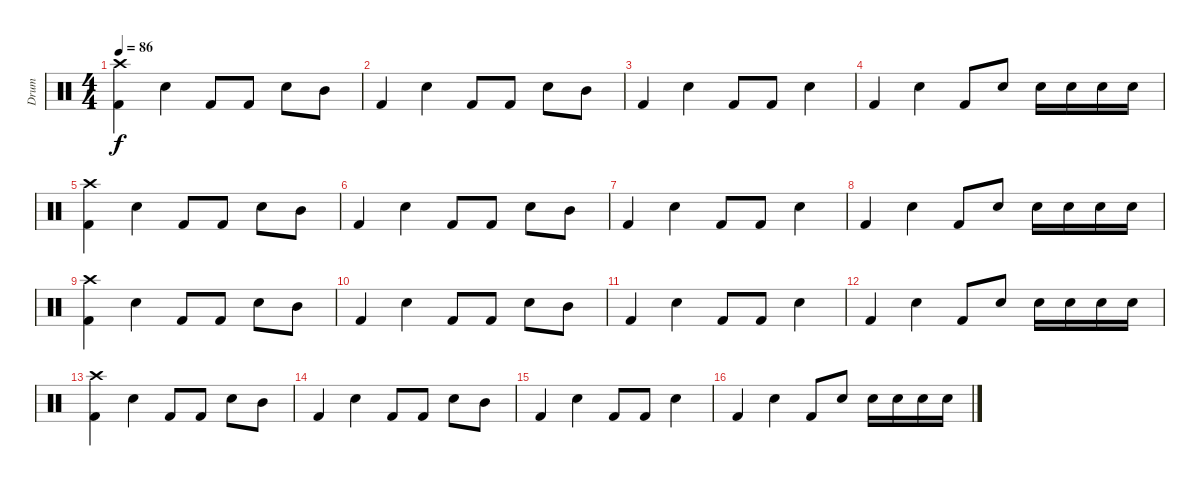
\track ("Drum" "Drum") {instrument percussion}
\staff {score}
\articulation defaults
\ts (4 4)
\tempo 86
\clef neutral
\ks c
("Crash high (hit)" "Kick (hit) 2").4{dy f} "Electric Snare (hit)".4 "Kick (hit) 2".8 "Kick (hit) 2".8 "Electric Snare (hit)".8 "Mid Tom (hit)".8 |
"Kick (hit) 2".4 "Electric Snare (hit)".4 "Kick (hit) 2".8 "Kick (hit) 2".8 "Electric Snare (hit)".8 "Mid Tom (hit)".8 |
"Kick (hit) 2".4 "Electric Snare (hit)".4 "Kick (hit) 2".8 "Kick (hit) 2".8 "Electric Snare (hit)".4 |
"Kick (hit) 2".4 "Electric Snare (hit)".4 "Kick (hit) 2".8 "Electric Snare (hit)".8 "Electric Snare (hit)".16 "Electric Snare (hit)".16 "Electric Snare (hit)".16 "Electric Snare (hit)".16 |
("Crash high (hit)" "Kick (hit) 2").4 "Electric Snare (hit)".4 "Kick (hit) 2".8 "Kick (hit) 2".8 "Electric Snare (hit)".8 "Mid Tom (hit)".8 |
"Kick (hit) 2".4 "Electric Snare (hit)".4 "Kick (hit) 2".8 "Kick (hit) 2".8 "Electric Snare (hit)".8 "Mid Tom (hit)".8 |
"Kick (hit) 2".4 "Electric Snare (hit)".4 "Kick (hit) 2".8 "Kick (hit) 2".8 "Electric Snare (hit)".4 |
"Kick (hit) 2".4 "Electric Snare (hit)".4 "Kick (hit) 2".8 "Electric Snare (hit)".8 "Electric Snare (hit)".16 "Electric Snare (hit)".16 "Electric Snare (hit)".16 "Electric Snare (hit)".16 |
("Crash high (hit)" "Kick (hit) 2").4 "Electric Snare (hit)".4 "Kick (hit) 2".8 "Kick (hit) 2".8 "Electric Snare (hit)".8 "Mid Tom (hit)".8 |
"Kick (hit) 2".4 "Electric Snare (hit)".4 "Kick (hit) 2".8 "Kick (hit) 2".8 "Electric Snare (hit)".8 "Mid Tom (hit)".8 |
"Kick (hit) 2".4 "Electric Snare (hit)".4 "Kick (hit) 2".8 "Kick (hit) 2".8 "Electric Snare (hit)".4 |
"Kick (hit) 2".4 "Electric Snare (hit)".4 "Kick (hit) 2".8 "Electric Snare (hit)".8 "Electric Snare (hit)".16 "Electric Snare (hit)".16 "Electric Snare (hit)".16 "Electric Snare (hit)".16 |
("Crash high (hit)" "Kick (hit) 2").4 "Electric Snare (hit)".4 "Kick (hit) 2".8 "Kick (hit) 2".8 "Electric Snare (hit)".8 "Mid Tom (hit)".8 |
"Kick (hit) 2".4 "Electric Snare (hit)".4 "Kick (hit) 2".8 "Kick (hit) 2".8 "Electric Snare (hit)".8 "Mid Tom (hit)".8 |
"Kick (hit) 2".4 "Electric Snare (hit)".4 "Kick (hit) 2".8 "Kick (hit) 2".8 "Electric Snare (hit)".4 |
"Kick (hit) 2".4 "Electric Snare (hit)".4 "Kick (hit) 2".8 "Electric Snare (hit)".8 "Electric Snare (hit)".16 "Electric Snare (hit)".16 "Electric Snare (hit)".16 "Electric Snare (hit)".16
